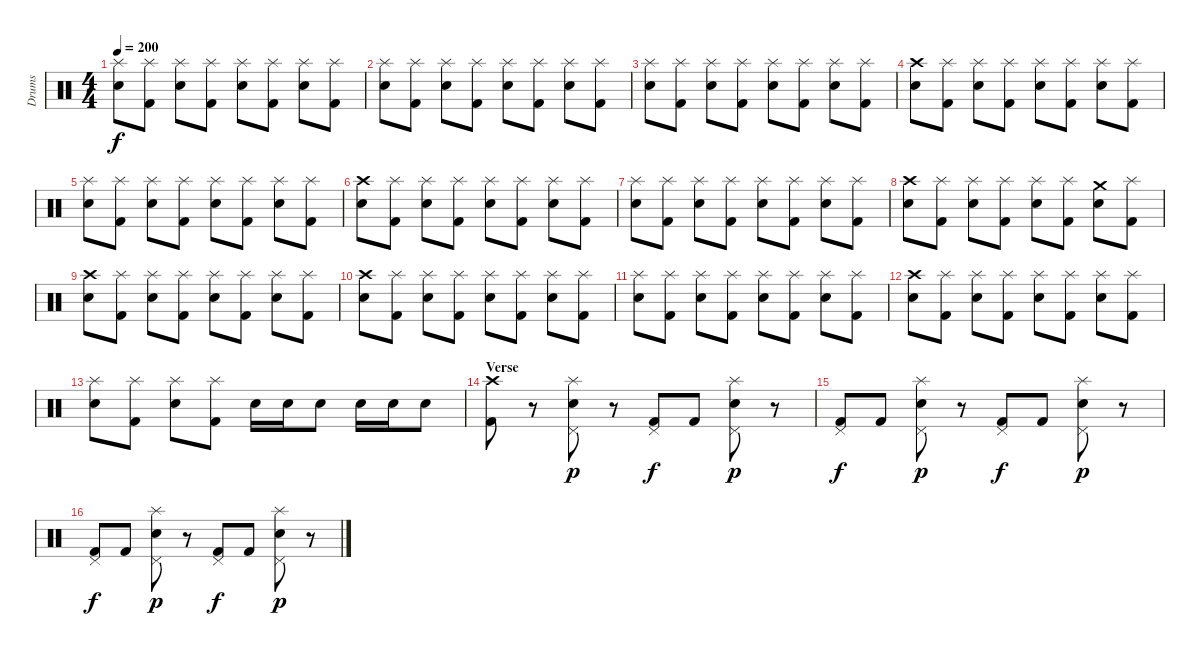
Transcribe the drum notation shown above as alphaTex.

\track ("Drums" "Drums") {instrument percussion}
\staff {score}
\articulation defaults
\ts (4 4)
\tempo 200
\clef neutral
\ks c
("Splash (hit)" "Electric Snare (hit)").8{dy f} ("Splash (hit)" "Kick (hit) 2").8 ("Splash (hit)" "Electric Snare (hit)").8 ("Splash (hit)" "Kick (hit) 2").8 ("Splash (hit)" "Electric Snare (hit)").8 ("Splash (hit)" "Kick (hit) 2").8 ("Splash (hit)" "Electric Snare (hit)").8 ("Splash (hit)" "Kick (hit) 2").8 |
("Splash (hit)" "Electric Snare (hit)").8 ("Splash (hit)" "Kick (hit) 2").8 ("Splash (hit)" "Electric Snare (hit)").8 ("Splash (hit)" "Kick (hit) 2").8 ("Splash (hit)" "Electric Snare (hit)").8 ("Splash (hit)" "Kick (hit) 2").8 ("Splash (hit)" "Electric Snare (hit)").8 ("Splash (hit)" "Kick (hit) 2").8 |
("Splash (hit)" "Electric Snare (hit)").8 ("Splash (hit)" "Kick (hit) 2").8 ("Splash (hit)" "Electric Snare (hit)").8 ("Splash (hit)" "Kick (hit) 2").8 ("Splash (hit)" "Electric Snare (hit)").8 ("Splash (hit)" "Kick (hit) 2").8 ("Splash (hit)" "Electric Snare (hit)").8 ("Splash (hit)" "Kick (hit) 2").8 |
("Crash high (hit)" "Electric Snare (hit)").8 ("Splash (hit)" "Kick (hit) 2").8 ("Splash (hit)" "Electric Snare (hit)").8 ("Splash (hit)" "Kick (hit) 2").8 ("Splash (hit)" "Electric Snare (hit)").8 ("Splash (hit)" "Kick (hit) 2").8 ("Splash (hit)" "Electric Snare (hit)").8 ("Splash (hit)" "Kick (hit) 2").8 |
("Splash (hit)" "Electric Snare (hit)").8 ("Splash (hit)" "Kick (hit) 2").8 ("Splash (hit)" "Electric Snare (hit)").8 ("Splash (hit)" "Kick (hit) 2").8 ("Splash (hit)" "Electric Snare (hit)").8 ("Splash (hit)" "Kick (hit) 2").8 ("Splash (hit)" "Electric Snare (hit)").8 ("Splash (hit)" "Kick (hit) 2").8 |
("Crash high (hit)" "Electric Snare (hit)").8 ("Splash (hit)" "Kick (hit) 2").8 ("Splash (hit)" "Electric Snare (hit)").8 ("Splash (hit)" "Kick (hit) 2").8 ("Splash (hit)" "Electric Snare (hit)").8 ("Splash (hit)" "Kick (hit) 2").8 ("Splash (hit)" "Electric Snare (hit)").8 ("Splash (hit)" "Kick (hit) 2").8 |
("Splash (hit)" "Electric Snare (hit)").8 ("Splash (hit)" "Kick (hit) 2").8 ("Splash (hit)" "Electric Snare (hit)").8 ("Splash (hit)" "Kick (hit) 2").8 ("Splash (hit)" "Electric Snare (hit)").8 ("Splash (hit)" "Kick (hit) 2").8 ("Splash (hit)" "Electric Snare (hit)").8 ("Splash (hit)" "Kick (hit) 2").8 |
("Crash high (hit)" "Electric Snare (hit)").8 ("Splash (hit)" "Kick (hit) 2").8 ("Splash (hit)" "Electric Snare (hit)").8 ("Splash (hit)" "Kick (hit) 2").8 ("Splash (hit)" "Electric Snare (hit)").8 ("Splash (hit)" "Kick (hit) 2").8 ("Crash medium (hit)" "Electric Snare (hit)").8 ("Splash (hit)" "Kick (hit) 2").8 |
("Crash high (hit)" "Electric Snare (hit)").8 ("Splash (hit)" "Kick (hit) 2").8 ("Splash (hit)" "Electric Snare (hit)").8 ("Splash (hit)" "Kick (hit) 2").8 ("Splash (hit)" "Electric Snare (hit)").8 ("Splash (hit)" "Kick (hit) 2").8 ("Splash (hit)" "Electric Snare (hit)").8 ("Splash (hit)" "Kick (hit) 2").8 |
("Crash high (hit)" "Electric Snare (hit)").8 ("Splash (hit)" "Kick (hit) 2").8 ("Splash (hit)" "Electric Snare (hit)").8 ("Splash (hit)" "Kick (hit) 2").8 ("Splash (hit)" "Electric Snare (hit)").8 ("Splash (hit)" "Kick (hit) 2").8 ("Splash (hit)" "Electric Snare (hit)").8 ("Splash (hit)" "Kick (hit) 2").8 |
("Splash (hit)" "Electric Snare (hit)").8 ("Splash (hit)" "Kick (hit) 2").8 ("Splash (hit)" "Electric Snare (hit)").8 ("Splash (hit)" "Kick (hit) 2").8 ("Splash (hit)" "Electric Snare (hit)").8 ("Splash (hit)" "Kick (hit) 2").8 ("Splash (hit)" "Electric Snare (hit)").8 ("Splash (hit)" "Kick (hit) 2").8 |
("Crash high (hit)" "Electric Snare (hit)").8 ("Splash (hit)" "Kick (hit) 2").8 ("Splash (hit)" "Electric Snare (hit)").8 ("Splash (hit)" "Kick (hit) 2").8 ("Splash (hit)" "Electric Snare (hit)").8 ("Splash (hit)" "Kick (hit) 2").8 ("Splash (hit)" "Electric Snare (hit)").8 ("Splash (hit)" "Kick (hit) 2").8 |
("Splash (hit)" "Electric Snare (hit)").8 ("Splash (hit)" "Kick (hit) 2").8 ("Splash (hit)" "Electric Snare (hit)").8 ("Splash (hit)" "Kick (hit) 2").8 "Electric Snare (hit)".16 "Electric Snare (hit)".16 "Electric Snare (hit)".8 "Electric Snare (hit)".16 "Electric Snare (hit)".16 "Electric Snare (hit)".8 |
\section ("" "Verse")
("Crash high (hit)" "Kick (hit) 2").8 r.8 ("Pedal Hi-Hat (hit)" "Splash (hit)" "Electric Snare (hit)").8{dy p} r.8 ("Pedal Hi-Hat (hit)" "Kick (hit) 2").8{dy f} "Kick (hit) 2".8 ("Pedal Hi-Hat (hit)" "Splash (hit)" "Electric Snare (hit)").8{dy p} r.8 |
("Pedal Hi-Hat (hit)" "Kick (hit) 2").8{dy f} "Kick (hit) 2".8 ("Pedal Hi-Hat (hit)" "Splash (hit)" "Electric Snare (hit)").8{dy p} r.8 ("Pedal Hi-Hat (hit)" "Kick (hit) 2").8{dy f} "Kick (hit) 2".8 ("Pedal Hi-Hat (hit)" "Splash (hit)" "Electric Snare (hit)").8{dy p} r.8 |
("Pedal Hi-Hat (hit)" "Kick (hit) 2").8{dy f} "Kick (hit) 2".8 ("Pedal Hi-Hat (hit)" "Splash (hit)" "Electric Snare (hit)").8{dy p} r.8 ("Pedal Hi-Hat (hit)" "Kick (hit) 2").8{dy f} "Kick (hit) 2".8 ("Pedal Hi-Hat (hit)" "Splash (hit)" "Electric Snare (hit)").8{dy p} r.8
